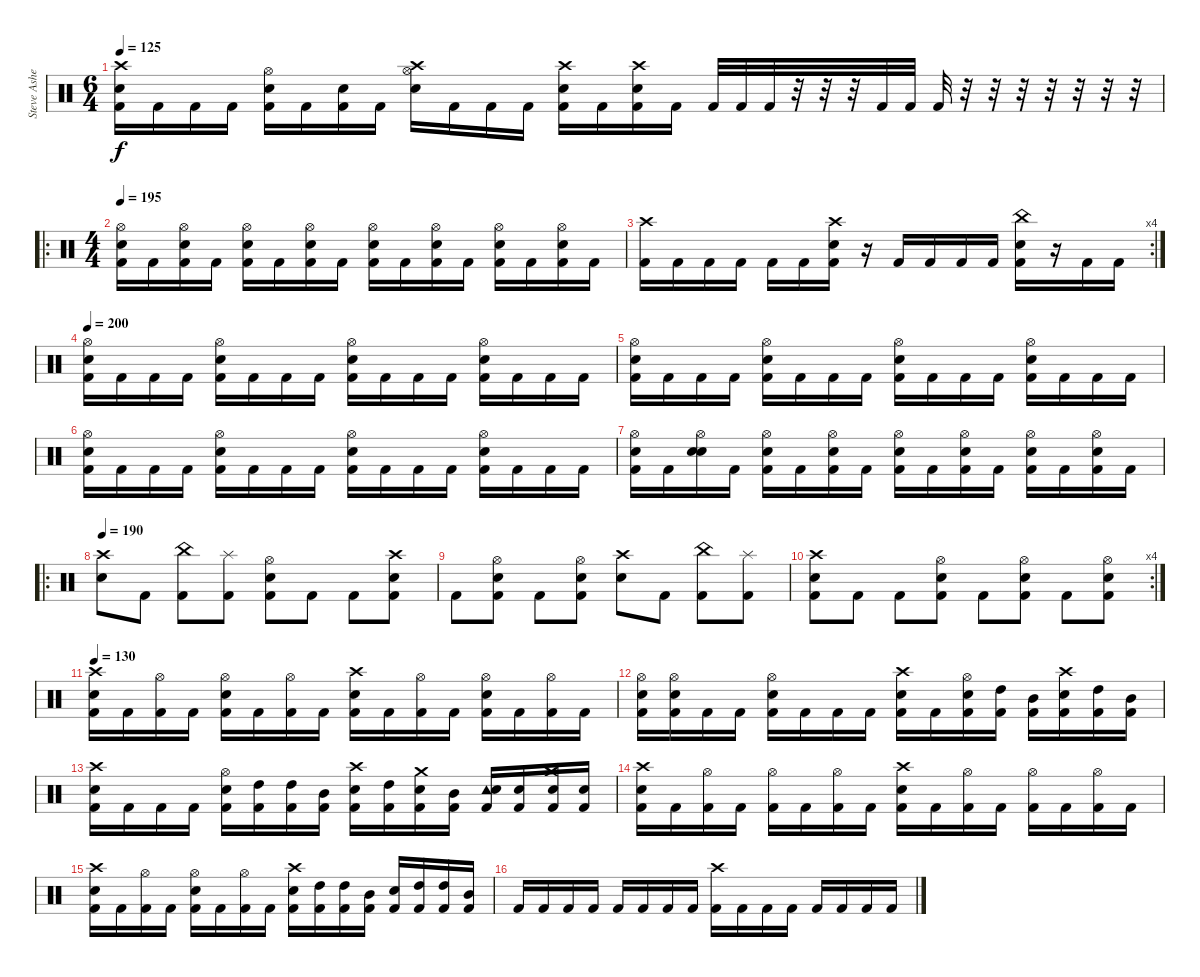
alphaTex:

\track ("Steve Asheim" "Steve Ashe") {instrument percussion}
\staff {score}
\articulation defaults
\ts (6 4)
\tempo 125
\clef neutral
\ks c
("Crash high (hit)" "Electric Snare (hit)" "Kick (hit) 2").16{dy f} "Kick (hit) 2".16 "Kick (hit) 2".16 "Kick (hit) 2".16 ("Hi-Hat (open)" "Electric Snare (hit)" "Kick (hit) 2").16 "Kick (hit) 2".16 ("Electric Snare (hit)" "Kick (hit) 2").16 "Kick (hit) 2".16 ("Crash high (hit)" "Electric Snare (hit)" "Hi-Hat (open)").16 "Kick (hit) 2".16 "Kick (hit) 2".16 "Kick (hit) 2".16 ("Crash high (hit)" "Electric Snare (hit)" "Kick (hit) 2").16 "Kick (hit) 2".16 ("Crash high (hit)" "Electric Snare (hit)" "Kick (hit) 2").16 "Kick (hit) 2".16 "Kick (hit) 2".32 "Kick (hit) 2".32 "Kick (hit) 2".32 r.32 r.32 r.32 "Kick (hit) 2".32 "Kick (hit) 2".32 "Kick (hit) 2".32 r.32 r.32 r.32 r.32 r.32 r.32 r.32 |
\ro
\ts (4 4)
\tempo 195
("Hi-Hat (open)" "Electric Snare (hit)" "Kick (hit) 2").16 "Kick (hit) 2".16 ("Hi-Hat (open)" "Electric Snare (hit)" "Kick (hit) 2").16 "Kick (hit) 2".16 ("Hi-Hat (open)" "Electric Snare (hit)" "Kick (hit) 2").16 "Kick (hit) 2".16 ("Hi-Hat (open)" "Electric Snare (hit)" "Kick (hit) 2").16 "Kick (hit) 2".16 ("Hi-Hat (open)" "Electric Snare (hit)" "Kick (hit) 2").16 "Kick (hit) 2".16 ("Hi-Hat (open)" "Electric Snare (hit)" "Kick (hit) 2").16 "Kick (hit) 2".16 ("Hi-Hat (open)" "Electric Snare (hit)" "Kick (hit) 2").16 "Kick (hit) 2".16 ("Hi-Hat (open)" "Electric Snare (hit)" "Kick (hit) 2").16 "Kick (hit) 2".16 |
\rc 4
("Crash high (hit)" "Kick (hit) 2").16 "Kick (hit) 2".16 "Kick (hit) 2".16 "Kick (hit) 2".16 "Kick (hit) 2".16 "Kick (hit) 2".16 ("Crash high (hit)" "Electric Snare (hit)" "Kick (hit) 2").16 r.16 "Kick (hit) 2".16 "Kick (hit) 2".16 "Kick (hit) 2".16 "Kick (hit) 2".16 ("China (hit)" "Electric Snare (hit)" "Kick (hit) 2").16 r.16 "Kick (hit) 2".16 "Kick (hit) 2".16 |
\tempo 200
("Hi-Hat (open)" "Electric Snare (hit)" "Kick (hit) 2").16 "Kick (hit) 2".16 "Kick (hit) 2".16 "Kick (hit) 2".16 ("Hi-Hat (open)" "Electric Snare (hit)" "Kick (hit) 2").16 "Kick (hit) 2".16 "Kick (hit) 2".16 "Kick (hit) 2".16 ("Hi-Hat (open)" "Electric Snare (hit)" "Kick (hit) 2").16 "Kick (hit) 2".16 "Kick (hit) 2".16 "Kick (hit) 2".16 ("Hi-Hat (open)" "Electric Snare (hit)" "Kick (hit) 2").16 "Kick (hit) 2".16 "Kick (hit) 2".16 "Kick (hit) 2".16 |
("Hi-Hat (open)" "Electric Snare (hit)" "Kick (hit) 2").16 "Kick (hit) 2".16 "Kick (hit) 2".16 "Kick (hit) 2".16 ("Hi-Hat (open)" "Electric Snare (hit)" "Kick (hit) 2").16 "Kick (hit) 2".16 "Kick (hit) 2".16 "Kick (hit) 2".16 ("Hi-Hat (open)" "Electric Snare (hit)" "Kick (hit) 2").16 "Kick (hit) 2".16 "Kick (hit) 2".16 "Kick (hit) 2".16 ("Hi-Hat (open)" "Electric Snare (hit)" "Kick (hit) 2").16 "Kick (hit) 2".16 "Kick (hit) 2".16 "Kick (hit) 2".16 |
("Hi-Hat (open)" "Electric Snare (hit)" "Kick (hit) 2").16 "Kick (hit) 2".16 "Kick (hit) 2".16 "Kick (hit) 2".16 ("Hi-Hat (open)" "Electric Snare (hit)" "Kick (hit) 2").16 "Kick (hit) 2".16 "Kick (hit) 2".16 "Kick (hit) 2".16 ("Hi-Hat (open)" "Electric Snare (hit)" "Kick (hit) 2").16 "Kick (hit) 2".16 "Kick (hit) 2".16 "Kick (hit) 2".16 ("Hi-Hat (open)" "Electric Snare (hit)" "Kick (hit) 2").16 "Kick (hit) 2".16 "Kick (hit) 2".16 "Kick (hit) 2".16 |
("Hi-Hat (open)" "Electric Snare (hit)" "Kick (hit) 2").16 "Kick (hit) 2".16 ("Hi-Hat (open)" "Electric Snare (hit)" "Electric Snare (hit)").16 "Kick (hit) 2".16 ("Hi-Hat (open)" "Electric Snare (hit)" "Kick (hit) 2").16 "Kick (hit) 2".16 ("Hi-Hat (open)" "Electric Snare (hit)" "Kick (hit) 2").16 "Kick (hit) 2".16 ("Hi-Hat (open)" "Electric Snare (hit)" "Kick (hit) 2").16 "Kick (hit) 2".16 ("Hi-Hat (open)" "Electric Snare (hit)" "Kick (hit) 2").16 "Kick (hit) 2".16 ("Hi-Hat (open)" "Electric Snare (hit)" "Kick (hit) 2").16 "Kick (hit) 2".16 ("Hi-Hat (open)" "Electric Snare (hit)" "Kick (hit) 2").16 "Kick (hit) 2".16 |
\ro
\tempo 190
("Crash high (hit)" "Electric Snare (hit)").8 "Kick (hit) 2".8 ("China (hit)" "Kick (hit) 2").8 ("Splash (hit)" "Kick (hit) 2").8 ("Hi-Hat (open)" "Electric Snare (hit)" "Kick (hit) 2").8 "Kick (hit) 2".8 "Kick (hit) 2".8 ("Crash high (hit)" "Electric Snare (hit)" "Kick (hit) 2").8 |
"Kick (hit) 2".8 ("Hi-Hat (open)" "Electric Snare (hit)" "Kick (hit) 2").8 "Kick (hit) 2".8 ("Hi-Hat (open)" "Electric Snare (hit)" "Kick (hit) 2").8 ("Crash high (hit)" "Electric Snare (hit)").8 "Kick (hit) 2".8 ("China (hit)" "Kick (hit) 2").8 ("Splash (hit)" "Kick (hit) 2").8 |
\rc 4
("Crash high (hit)" "Electric Snare (hit)" "Kick (hit) 2").8 "Kick (hit) 2".8 "Kick (hit) 2".8 ("Hi-Hat (open)" "Electric Snare (hit)" "Kick (hit) 2").8 "Kick (hit) 2".8 ("Hi-Hat (open)" "Electric Snare (hit)" "Kick (hit) 2").8 "Kick (hit) 2".8 ("Hi-Hat (open)" "Electric Snare (hit)" "Kick (hit) 2").8 |
\tempo 130
("Crash high (hit)" "Electric Snare (hit)" "Kick (hit) 2").16 "Kick (hit) 2".16 ("Hi-Hat (open)" "Kick (hit) 2").16 "Kick (hit) 2".16 ("Hi-Hat (open)" "Electric Snare (hit)" "Kick (hit) 2").16 "Kick (hit) 2".16 ("Hi-Hat (open)" "Kick (hit) 2").16 "Kick (hit) 2".16 ("Crash high (hit)" "Electric Snare (hit)" "Kick (hit) 2").16 "Kick (hit) 2".16 ("Hi-Hat (open)" "Kick (hit) 2").16 "Kick (hit) 2".16 ("Hi-Hat (open)" "Electric Snare (hit)" "Kick (hit) 2").16 "Kick (hit) 2".16 ("Hi-Hat (open)" "Kick (hit) 2").16 "Kick (hit) 2".16 |
("Hi-Hat (open)" "Electric Snare (hit)" "Kick (hit) 2").16 ("Hi-Hat (open)" "Electric Snare (hit)" "Kick (hit) 2").16 "Kick (hit) 2".16 "Kick (hit) 2".16 ("Hi-Hat (open)" "Electric Snare (hit)" "Kick (hit) 2").16 "Kick (hit) 2".16 "Kick (hit) 2".16 "Kick (hit) 2".16 ("Crash high (hit)" "Electric Snare (hit)" "Kick (hit) 2").16 "Kick (hit) 2".16 ("Hi-Hat (open)" "Electric Snare (hit)" "Kick (hit) 2").16 ("High Tom (hit)" "Kick (hit) 2").16 ("Mid Tom (hit)" "Kick (hit) 2").16 ("Crash high (hit)" "Electric Snare (hit)" "Kick (hit) 2").16 ("High Tom (hit)" "Kick (hit) 2").16 ("Mid Tom (hit)" "Kick (hit) 2").16 |
("Crash high (hit)" "Electric Snare (hit)" "Kick (hit) 2").16 "Kick (hit) 2".16 "Kick (hit) 2".16 "Kick (hit) 2".16 ("Hi-Hat (open)" "Electric Snare (hit)" "Kick (hit) 2").16 ("High Tom (hit)" "Kick (hit) 2").16 ("High Tom (hit)" "Kick (hit) 2").16 ("Mid Tom (hit)" "Kick (hit) 2").16 ("Crash high (hit)" "Electric Snare (hit)" "Kick (hit) 2").16 ("High Tom (hit)" "Kick (hit) 2").16 ("Crash medium (hit)" "Electric Snare (hit)" "Kick (hit) 2").16 ("Mid Tom (hit)" "Kick (hit) 2").16 ("Tambourine (hit)" "Electric Snare (hit)" "Kick (hit) 2").16 ("Snare (hit) 2" "Kick (hit) 2").16 ("Crash medium (hit)" "Snare (hit) 2" "Kick (hit) 2").16 ("Snare (hit) 2" "Kick (hit) 2").16 |
("Crash high (hit)" "Electric Snare (hit)" "Kick (hit) 2").16 "Kick (hit) 2".16 ("Hi-Hat (open)" "Kick (hit) 2").16 "Kick (hit) 2".16 ("Hi-Hat (open)" "Kick (hit) 2").16 "Kick (hit) 2".16 ("Hi-Hat (open)" "Kick (hit) 2").16 "Kick (hit) 2".16 ("Crash high (hit)" "Electric Snare (hit)" "Kick (hit) 2").16 "Kick (hit) 2".16 ("Hi-Hat (open)" "Kick (hit) 2").16 "Kick (hit) 2".16 ("Hi-Hat (open)" "Kick (hit) 2").16 "Kick (hit) 2".16 ("Hi-Hat (open)" "Kick (hit) 2").16 "Kick (hit) 2".16 |
("Crash high (hit)" "Electric Snare (hit)" "Kick (hit) 2").16 "Kick (hit) 2".16 ("Hi-Hat (open)" "Kick (hit) 2").16 "Kick (hit) 2".16 ("Hi-Hat (open)" "Electric Snare (hit)" "Kick (hit) 2").16 "Kick (hit) 2".16 ("Hi-Hat (open)" "Kick (hit) 2").16 "Kick (hit) 2".16 ("Crash high (hit)" "Electric Snare (hit)" "Kick (hit) 2").16 ("High Tom (hit)" "Kick (hit) 2").16 ("High Tom (hit)" "Kick (hit) 2").16 ("Mid Tom (hit)" "Kick (hit) 2").16 ("Electric Snare (hit)" "Kick (hit) 2").16 ("High Tom (hit)" "Kick (hit) 2").16 ("High Tom (hit)" "Kick (hit) 2").16 ("Mid Tom (hit)" "Kick (hit) 2").16 |
"Kick (hit) 2".16 "Kick (hit) 2".16 "Kick (hit) 2".16 "Kick (hit) 2".16 "Kick (hit) 2".16 "Kick (hit) 2".16 "Kick (hit) 2".16 "Kick (hit) 2".16 ("Crash high (hit)" "Kick (hit) 2").16 "Kick (hit) 2".16 "Kick (hit) 2".16 "Kick (hit) 2".16 "Kick (hit) 2".16 "Kick (hit) 2".16 "Kick (hit) 2".16 "Kick (hit) 2".16
